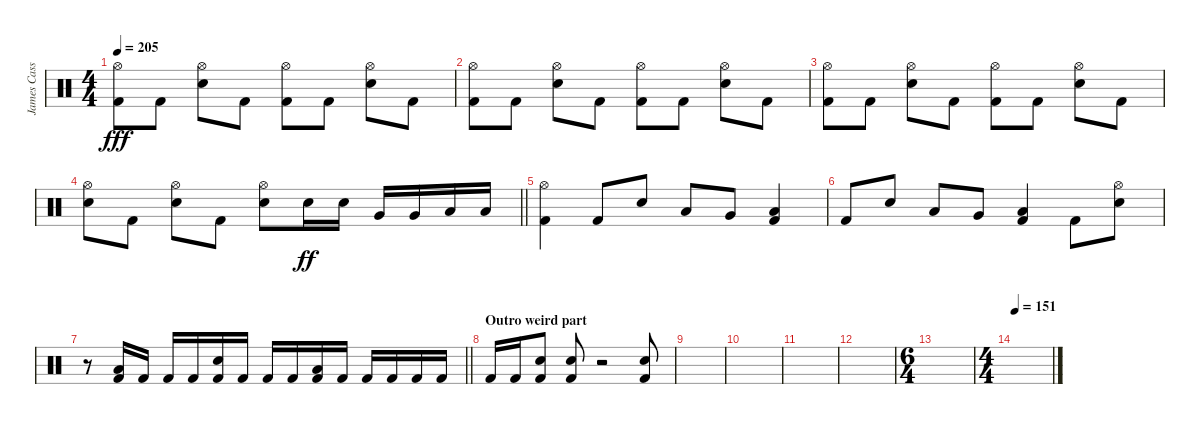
\track ("James Cassels" "James Cass") {instrument percussion}
\staff {score}
\articulation defaults
\ts (4 4)
\tempo 205
\clef neutral
\ks c
("Hi-Hat (open)" "Kick (hit) 2").8{dy fff} "Kick (hit) 2".8 ("Hi-Hat (open)" "Electric Snare (hit)").8 "Kick (hit) 2".8 ("Hi-Hat (open)" "Kick (hit) 2").8 "Kick (hit) 2".8 ("Hi-Hat (open)" "Electric Snare (hit)").8 "Kick (hit) 2".8 |
("Hi-Hat (open)" "Kick (hit) 2").8 "Kick (hit) 2".8 ("Hi-Hat (open)" "Electric Snare (hit)").8 "Kick (hit) 2".8 ("Hi-Hat (open)" "Kick (hit) 2").8 "Kick (hit) 2".8 ("Hi-Hat (open)" "Electric Snare (hit)").8 "Kick (hit) 2".8 |
("Hi-Hat (open)" "Kick (hit) 2").8 "Kick (hit) 2".8 ("Hi-Hat (open)" "Electric Snare (hit)").8 "Kick (hit) 2".8 ("Hi-Hat (open)" "Kick (hit) 2").8 "Kick (hit) 2".8 ("Hi-Hat (open)" "Electric Snare (hit)").8 "Kick (hit) 2".8 |
\barLineRight lightlight
("Hi-Hat (open)" "Electric Snare (hit)").8 "Kick (hit) 2".8 ("Hi-Hat (open)" "Electric Snare (hit)").8 "Kick (hit) 2".8 ("Hi-Hat (open)" "Electric Snare (hit)").8 "Electric Snare (hit)".16{dy ff} "Electric Snare (hit)".16 "Very Low Tom (hit)".16 "Very Low Tom (hit)".16 "Low Floor Tom (hit)".16 "Low Floor Tom (hit)".16 |
("Hi-Hat (open)" "Kick (hit) 2").4 "Kick (hit) 2".8 "Electric Snare (hit)".8 "Low Floor Tom (hit)".8 "Very Low Tom (hit)".8 ("Low Floor Tom (hit)" "Kick (hit) 2").4 |
"Kick (hit) 2".8 "Electric Snare (hit)".8 "Low Floor Tom (hit)".8 "Very Low Tom (hit)".8 ("Low Floor Tom (hit)" "Kick (hit) 2").4 "Kick (hit) 2".8 ("Hi-Hat (open)" "Electric Snare (hit)").8 |
\barLineRight lightlight
r.8 ("Low Floor Tom (hit)" "Kick (hit) 2").16 "Kick (hit) 2".16 "Kick (hit) 2".16 "Kick (hit) 2".16 ("Electric Snare (hit)" "Kick (hit) 2").16 "Kick (hit) 2".16 "Kick (hit) 2".16 "Kick (hit) 2".16 ("Low Floor Tom (hit)" "Kick (hit) 2").16 "Kick (hit) 2".16 "Kick (hit) 2".16 "Kick (hit) 2".16 "Kick (hit) 2".16 "Kick (hit) 2".16 |
\section ("" "Outro weird part")
"Kick (hit) 2".16 "Kick (hit) 2".16 ("Electric Snare (hit)" "Kick (hit) 2").8 ("Electric Snare (hit)" "Kick (hit) 2").8 r.2 ("Electric Snare (hit)" "Kick (hit) 2").8 |
|
|
|
|
\ts (6 4)
|
\ts (4 4)
\tempo 150
\tempo 151
